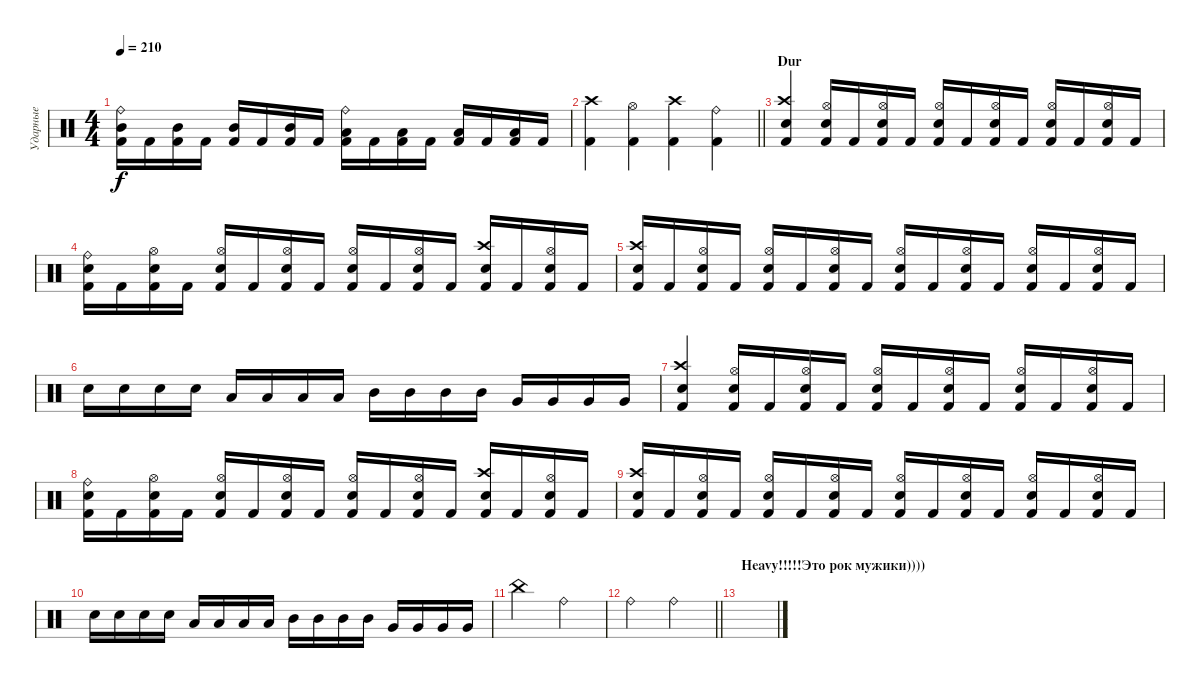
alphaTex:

\track ("Ударные" "Ударные") {instrument percussion}
\staff {score}
\articulation defaults
\ts (4 4)
\tempo 210
\clef neutral
\ks c
("Ride (bell)" "Mid Tom (hit)" "Kick (hit) 2").16{dy f} "Kick (hit) 2".16 ("Mid Tom (hit)" "Kick (hit) 2").16 "Kick (hit) 2".16 ("Mid Tom (hit)" "Kick (hit) 2").16 "Kick (hit) 2".16 ("Mid Tom (hit)" "Kick (hit) 2").16 "Kick (hit) 2".16 ("Ride (bell)" "Low Tom (hit)" "Kick (hit) 2").16 "Kick (hit) 2".16 ("Low Tom (hit)" "Kick (hit) 2").16 "Kick (hit) 2".16 ("Low Tom (hit)" "Kick (hit) 2").16 "Kick (hit) 2".16 ("Low Tom (hit)" "Kick (hit) 2").16 "Kick (hit) 2".16 |
\barLineRight lightlight
("Crash high (hit)" "Kick (hit) 2").4 ("Hi-Hat (open)" "Kick (hit) 2").4 ("Crash high (hit)" "Kick (hit) 2").4 ("Ride (bell)" "Kick (hit) 2").4 |
\section ("" "Dur")
("Crash high (hit)" "Snare (hit) 2" "Kick (hit) 2").4 ("Hi-Hat (open)" "Snare (hit) 2" "Kick (hit) 2").16 "Kick (hit) 2".16 ("Hi-Hat (open)" "Snare (hit) 2" "Kick (hit) 2").16 "Kick (hit) 2".16 ("Hi-Hat (open)" "Snare (hit) 2" "Kick (hit) 2").16 "Kick (hit) 2".16 ("Hi-Hat (open)" "Snare (hit) 2" "Kick (hit) 2").16 "Kick (hit) 2".16 ("Hi-Hat (open)" "Snare (hit) 2" "Kick (hit) 2").16 "Kick (hit) 2".16 ("Hi-Hat (open)" "Snare (hit) 2" "Kick (hit) 2").16 "Kick (hit) 2".16 |
("Ride (bell)" "Snare (hit) 2" "Kick (hit) 2").16 "Kick (hit) 2".16 ("Hi-Hat (open)" "Snare (hit) 2" "Kick (hit) 2").16 "Kick (hit) 2".16 ("Hi-Hat (open)" "Snare (hit) 2" "Kick (hit) 2").16 "Kick (hit) 2".16 ("Hi-Hat (open)" "Snare (hit) 2" "Kick (hit) 2").16 "Kick (hit) 2".16 ("Hi-Hat (open)" "Snare (hit) 2" "Kick (hit) 2").16 "Kick (hit) 2".16 ("Hi-Hat (open)" "Snare (hit) 2" "Kick (hit) 2").16 "Kick (hit) 2".16 ("Crash high (hit)" "Snare (hit) 2" "Kick (hit) 2").16 "Kick (hit) 2".16 ("Hi-Hat (open)" "Snare (hit) 2" "Kick (hit) 2").16 "Kick (hit) 2".16 |
("Crash high (hit)" "Snare (hit) 2" "Kick (hit) 2").16 "Kick (hit) 2".16 ("Hi-Hat (open)" "Snare (hit) 2" "Kick (hit) 2").16 "Kick (hit) 2".16 ("Hi-Hat (open)" "Snare (hit) 2" "Kick (hit) 2").16 "Kick (hit) 2".16 ("Hi-Hat (open)" "Snare (hit) 2" "Kick (hit) 2").16 "Kick (hit) 2".16 ("Hi-Hat (open)" "Snare (hit) 2" "Kick (hit) 2").16 "Kick (hit) 2".16 ("Hi-Hat (open)" "Snare (hit) 2" "Kick (hit) 2").16 "Kick (hit) 2".16 ("Hi-Hat (open)" "Snare (hit) 2" "Kick (hit) 2").16 "Kick (hit) 2".16 ("Hi-Hat (open)" "Snare (hit) 2" "Kick (hit) 2").16 "Kick (hit) 2".16 |
"Snare (hit) 2".16 "Snare (hit) 2".16 "Snare (hit) 2".16 "Snare (hit) 2".16 "Low Tom (hit)".16 "Low Tom (hit)".16 "Low Tom (hit)".16 "Low Tom (hit)".16 "Mid Tom (hit)".16 "Mid Tom (hit)".16 "Mid Tom (hit)".16 "Mid Tom (hit)".16 "Very Low Tom (hit)".16 "Very Low Tom (hit)".16 "Very Low Tom (hit)".16 "Very Low Tom (hit)".16 |
("Crash high (hit)" "Snare (hit) 2" "Kick (hit) 2").4 ("Hi-Hat (open)" "Snare (hit) 2" "Kick (hit) 2").16 "Kick (hit) 2".16 ("Hi-Hat (open)" "Snare (hit) 2" "Kick (hit) 2").16 "Kick (hit) 2".16 ("Hi-Hat (open)" "Snare (hit) 2" "Kick (hit) 2").16 "Kick (hit) 2".16 ("Hi-Hat (open)" "Snare (hit) 2" "Kick (hit) 2").16 "Kick (hit) 2".16 ("Hi-Hat (open)" "Snare (hit) 2" "Kick (hit) 2").16 "Kick (hit) 2".16 ("Hi-Hat (open)" "Snare (hit) 2" "Kick (hit) 2").16 "Kick (hit) 2".16 |
("Ride (bell)" "Snare (hit) 2" "Kick (hit) 2").16 "Kick (hit) 2".16 ("Hi-Hat (open)" "Snare (hit) 2" "Kick (hit) 2").16 "Kick (hit) 2".16 ("Hi-Hat (open)" "Snare (hit) 2" "Kick (hit) 2").16 "Kick (hit) 2".16 ("Hi-Hat (open)" "Snare (hit) 2" "Kick (hit) 2").16 "Kick (hit) 2".16 ("Hi-Hat (open)" "Snare (hit) 2" "Kick (hit) 2").16 "Kick (hit) 2".16 ("Hi-Hat (open)" "Snare (hit) 2" "Kick (hit) 2").16 "Kick (hit) 2".16 ("Crash high (hit)" "Snare (hit) 2" "Kick (hit) 2").16 "Kick (hit) 2".16 ("Hi-Hat (open)" "Snare (hit) 2" "Kick (hit) 2").16 "Kick (hit) 2".16 |
("Crash high (hit)" "Snare (hit) 2" "Kick (hit) 2").16 "Kick (hit) 2".16 ("Hi-Hat (open)" "Snare (hit) 2" "Kick (hit) 2").16 "Kick (hit) 2".16 ("Hi-Hat (open)" "Snare (hit) 2" "Kick (hit) 2").16 "Kick (hit) 2".16 ("Hi-Hat (open)" "Snare (hit) 2" "Kick (hit) 2").16 "Kick (hit) 2".16 ("Hi-Hat (open)" "Snare (hit) 2" "Kick (hit) 2").16 "Kick (hit) 2".16 ("Hi-Hat (open)" "Snare (hit) 2" "Kick (hit) 2").16 "Kick (hit) 2".16 ("Hi-Hat (open)" "Snare (hit) 2" "Kick (hit) 2").16 "Kick (hit) 2".16 ("Hi-Hat (open)" "Snare (hit) 2" "Kick (hit) 2").16 "Kick (hit) 2".16 |
"Snare (hit) 2".16 "Snare (hit) 2".16 "Snare (hit) 2".16 "Snare (hit) 2".16 "Low Tom (hit)".16 "Low Tom (hit)".16 "Low Tom (hit)".16 "Low Tom (hit)".16 "Mid Tom (hit)".16 "Mid Tom (hit)".16 "Mid Tom (hit)".16 "Mid Tom (hit)".16 "Very Low Tom (hit)".16 "Very Low Tom (hit)".16 "Very Low Tom (hit)".16 "Very Low Tom (hit)".16 |
"China (hit)".2 "Ride (bell)".2 |
\barLineRight lightlight "Ride (bell)".2 "Ride (bell)".2
|
\section ("" "Heavy!!!!!Это рок мужики))))")
